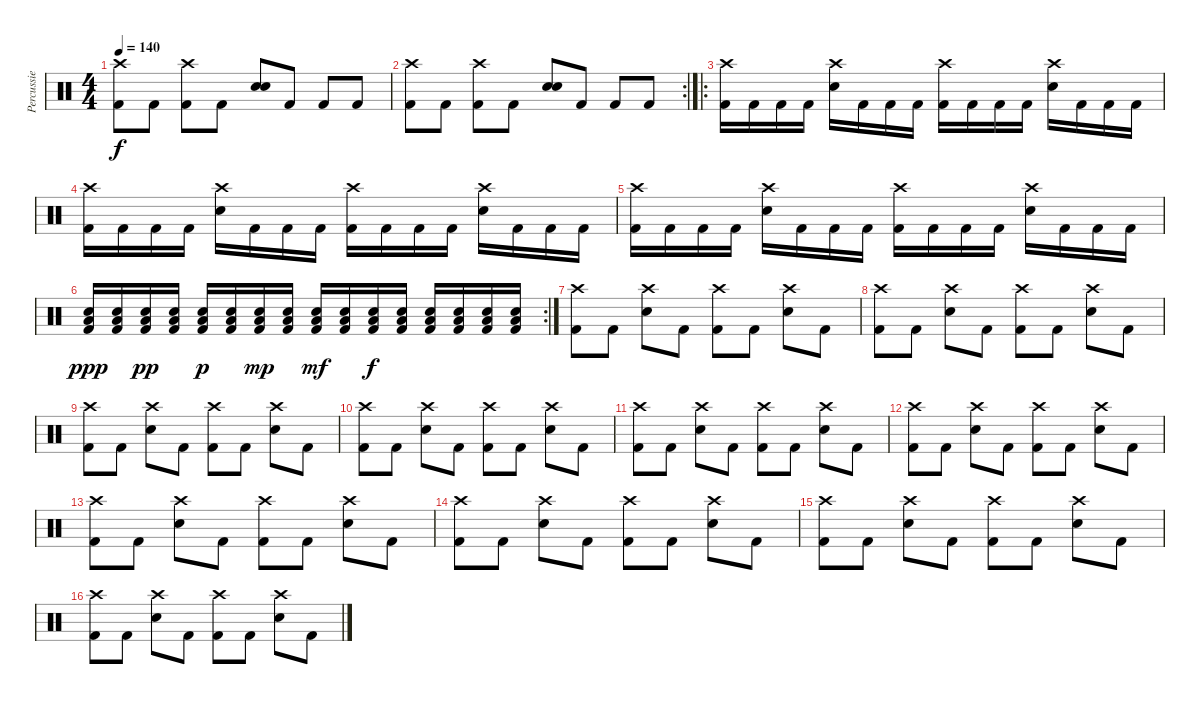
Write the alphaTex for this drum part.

\track ("Percussie" "Percussie") {instrument percussion}
\staff {score}
\articulation defaults
\ts (4 4)
\tempo 140
\clef neutral
\ks c
("Crash high (hit)" "Kick (hit) 2").8{dy f} "Kick (hit) 2".8 ("Crash high (hit)" "Kick (hit) 2").8 "Kick (hit) 2".8 ("Snare (hit) 2" "Snare (hit) 2").8{bd 480} "Kick (hit) 2".8 "Kick (hit) 2".8 "Kick (hit) 2".8 |
\rc 2
("Crash high (hit)" "Kick (hit) 2").8 "Kick (hit) 2".8 ("Crash high (hit)" "Kick (hit) 2").8 "Kick (hit) 2".8 ("Snare (hit) 2" "Snare (hit) 2").8{bd 480} "Kick (hit) 2".8 "Kick (hit) 2".8 "Kick (hit) 2".8 |
\ro
("Crash high (hit)" "Kick (hit) 2").16 "Kick (hit) 2".16 "Kick (hit) 2".16 "Kick (hit) 2".16 ("Crash high (hit)" "Snare (hit) 2").16 "Kick (hit) 2".16 "Kick (hit) 2".16 "Kick (hit) 2".16 ("Crash high (hit)" "Kick (hit) 2").16 "Kick (hit) 2".16 "Kick (hit) 2".16 "Kick (hit) 2".16 ("Crash high (hit)" "Snare (hit) 2").16 "Kick (hit) 2".16 "Kick (hit) 2".16 "Kick (hit) 2".16 |
("Crash high (hit)" "Kick (hit) 2").16 "Kick (hit) 2".16 "Kick (hit) 2".16 "Kick (hit) 2".16 ("Crash high (hit)" "Snare (hit) 2").16 "Kick (hit) 2".16 "Kick (hit) 2".16 "Kick (hit) 2".16 ("Crash high (hit)" "Kick (hit) 2").16 "Kick (hit) 2".16 "Kick (hit) 2".16 "Kick (hit) 2".16 ("Crash high (hit)" "Snare (hit) 2").16 "Kick (hit) 2".16 "Kick (hit) 2".16 "Kick (hit) 2".16 |
("Crash high (hit)" "Kick (hit) 2").16 "Kick (hit) 2".16 "Kick (hit) 2".16 "Kick (hit) 2".16 ("Crash high (hit)" "Snare (hit) 2").16 "Kick (hit) 2".16 "Kick (hit) 2".16 "Kick (hit) 2".16 ("Crash high (hit)" "Kick (hit) 2").16 "Kick (hit) 2".16 "Kick (hit) 2".16 "Kick (hit) 2".16 ("Crash high (hit)" "Snare (hit) 2").16 "Kick (hit) 2".16 "Kick (hit) 2".16 "Kick (hit) 2".16 |
\rc 2
("Kick (hit) 2" "Snare (hit) 2" "Low Floor Tom (hit)").16{dy ppp} ("Kick (hit) 2" "Snare (hit) 2" "Low Floor Tom (hit)").16 ("Kick (hit) 2" "Snare (hit) 2" "Low Floor Tom (hit)").16{dy pp} ("Kick (hit) 2" "Snare (hit) 2" "Low Floor Tom (hit)").16 ("Kick (hit) 2" "Snare (hit) 2" "Low Floor Tom (hit)").16{dy p} ("Kick (hit) 2" "Snare (hit) 2" "Low Floor Tom (hit)").16 ("Kick (hit) 2" "Snare (hit) 2" "Low Floor Tom (hit)").16{dy mp} ("Kick (hit) 2" "Snare (hit) 2" "Low Floor Tom (hit)").16 ("Kick (hit) 2" "Snare (hit) 2" "Low Floor Tom (hit)").16{dy mf} ("Kick (hit) 2" "Snare (hit) 2" "Low Floor Tom (hit)").16 ("Kick (hit) 2" "Snare (hit) 2" "Low Floor Tom (hit)").16{dy f} ("Kick (hit) 2" "Snare (hit) 2" "Low Floor Tom (hit)").16 ("Kick (hit) 2" "Snare (hit) 2" "Low Floor Tom (hit)").16 ("Kick (hit) 2" "Snare (hit) 2" "Low Floor Tom (hit)").16 ("Kick (hit) 2" "Snare (hit) 2" "Low Floor Tom (hit)").16 ("Kick (hit) 2" "Snare (hit) 2" "Low Floor Tom (hit)").16 |
("Crash high (hit)" "Kick (hit) 2").8 "Kick (hit) 2".8 ("Crash high (hit)" "Snare (hit) 2").8 "Kick (hit) 2".8 ("Crash high (hit)" "Kick (hit) 2").8 "Kick (hit) 2".8 ("Crash high (hit)" "Snare (hit) 2").8 "Kick (hit) 2".8 |
("Crash high (hit)" "Kick (hit) 2").8 "Kick (hit) 2".8 ("Crash high (hit)" "Snare (hit) 2").8 "Kick (hit) 2".8 ("Crash high (hit)" "Kick (hit) 2").8 "Kick (hit) 2".8 ("Crash high (hit)" "Snare (hit) 2").8 "Kick (hit) 2".8 |
("Crash high (hit)" "Kick (hit) 2").8 "Kick (hit) 2".8 ("Crash high (hit)" "Snare (hit) 2").8 "Kick (hit) 2".8 ("Crash high (hit)" "Kick (hit) 2").8 "Kick (hit) 2".8 ("Crash high (hit)" "Snare (hit) 2").8 "Kick (hit) 2".8 |
("Crash high (hit)" "Kick (hit) 2").8 "Kick (hit) 2".8 ("Crash high (hit)" "Snare (hit) 2").8 "Kick (hit) 2".8 ("Crash high (hit)" "Kick (hit) 2").8 "Kick (hit) 2".8 ("Crash high (hit)" "Snare (hit) 2").8 "Kick (hit) 2".8 |
("Crash high (hit)" "Kick (hit) 2").8 "Kick (hit) 2".8 ("Crash high (hit)" "Snare (hit) 2").8 "Kick (hit) 2".8 ("Crash high (hit)" "Kick (hit) 2").8 "Kick (hit) 2".8 ("Crash high (hit)" "Snare (hit) 2").8 "Kick (hit) 2".8 |
("Crash high (hit)" "Kick (hit) 2").8 "Kick (hit) 2".8 ("Crash high (hit)" "Snare (hit) 2").8 "Kick (hit) 2".8 ("Crash high (hit)" "Kick (hit) 2").8 "Kick (hit) 2".8 ("Crash high (hit)" "Snare (hit) 2").8 "Kick (hit) 2".8 |
("Crash high (hit)" "Kick (hit) 2").8 "Kick (hit) 2".8 ("Crash high (hit)" "Snare (hit) 2").8 "Kick (hit) 2".8 ("Crash high (hit)" "Kick (hit) 2").8 "Kick (hit) 2".8 ("Crash high (hit)" "Snare (hit) 2").8 "Kick (hit) 2".8 |
("Crash high (hit)" "Kick (hit) 2").8 "Kick (hit) 2".8 ("Crash high (hit)" "Snare (hit) 2").8 "Kick (hit) 2".8 ("Crash high (hit)" "Kick (hit) 2").8 "Kick (hit) 2".8 ("Crash high (hit)" "Snare (hit) 2").8 "Kick (hit) 2".8 |
("Crash high (hit)" "Kick (hit) 2").8 "Kick (hit) 2".8 ("Crash high (hit)" "Snare (hit) 2").8 "Kick (hit) 2".8 ("Crash high (hit)" "Kick (hit) 2").8 "Kick (hit) 2".8 ("Crash high (hit)" "Snare (hit) 2").8 "Kick (hit) 2".8 |
("Crash high (hit)" "Kick (hit) 2").8 "Kick (hit) 2".8 ("Crash high (hit)" "Snare (hit) 2").8 "Kick (hit) 2".8 ("Crash high (hit)" "Kick (hit) 2").8 "Kick (hit) 2".8 ("Crash high (hit)" "Snare (hit) 2").8 "Kick (hit) 2".8
